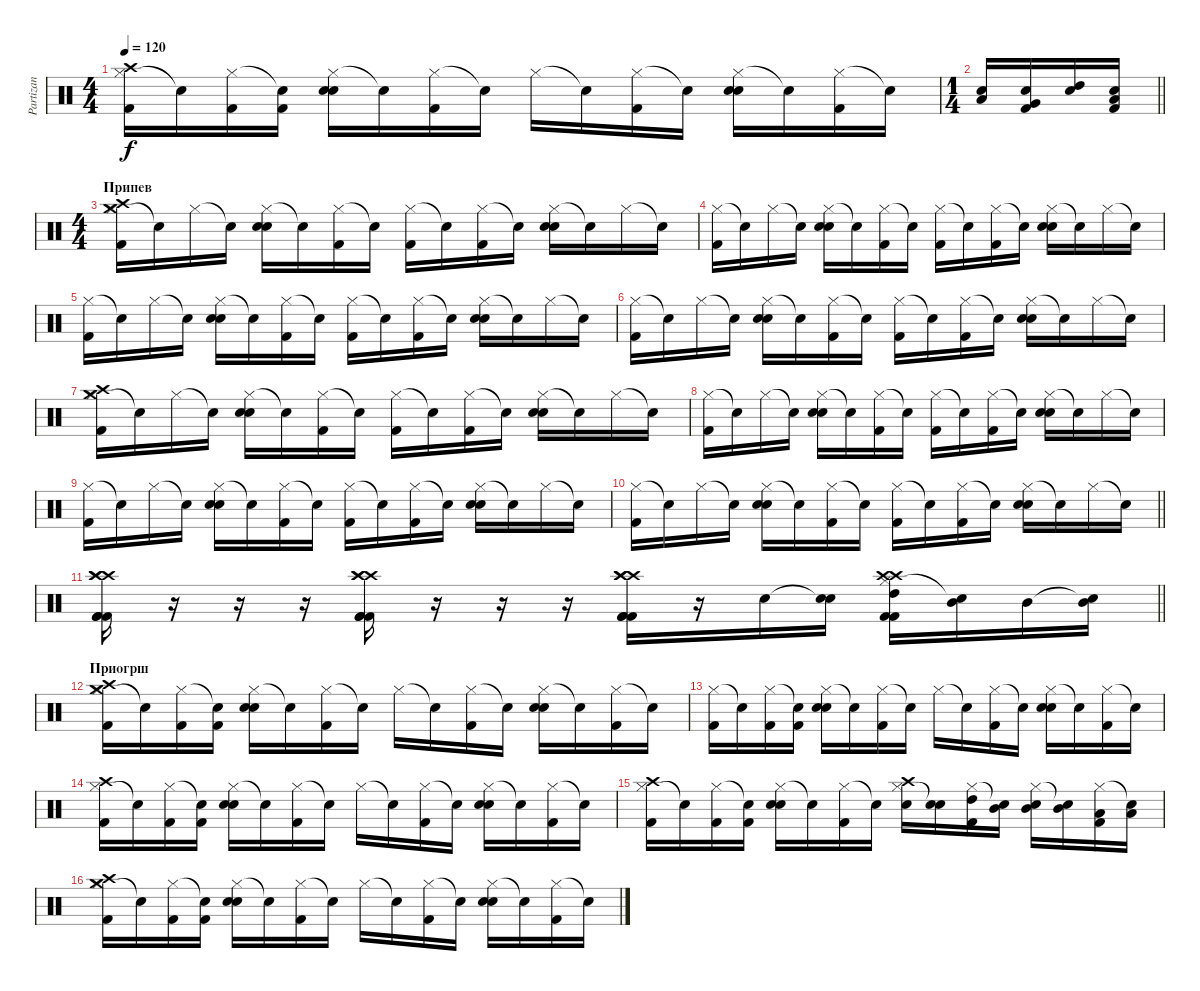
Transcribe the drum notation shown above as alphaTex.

\track ("Partizan" "Partizan") {instrument percussion}
\staff {score}
\articulation defaults
\ts (4 4)
\tempo 120
\clef neutral
\ks c
("Hi-Hat (closed)" "Crash high (hit)" "Kick (hit) 2").16{dy f} "Snare (hit)"{t}.16 ("Hi-Hat (closed)" "Kick (hit) 2").16 ("Snare (hit)"{t} "Kick (hit) 2").16 ("Hi-Hat (closed)" "Electric Snare (hit)" "Snare (hit) 2").16 "Snare (hit)"{t}.16 ("Hi-Hat (closed)" "Kick (hit) 2").16 "Snare (hit)"{t}.16 "Hi-Hat (closed)".16 "Snare (hit)"{t}.16 ("Hi-Hat (closed)" "Kick (hit) 2").16 "Snare (hit)"{t}.16 ("Hi-Hat (closed)" "Electric Snare (hit)" "Snare (hit) 2").16 "Snare (hit)"{t}.16 ("Hi-Hat (closed)" "Kick (hit) 2").16 "Snare (hit)"{t}.16 |
\ts (1 4)
\barLineRight lightlight
("Low Tom (hit)" "Electric Snare (hit)").16 ("Very Low Tom (hit)" "Electric Snare (hit)" "Kick (hit) 2").16 ("High Tom (hit)" "Electric Snare (hit)").16 ("Low Floor Tom (hit)" "Electric Snare (hit)" "Kick (hit) 2").16 |
\ts (4 4)
\section ("" "Припев")
("Hi-Hat (closed)" "Crash high (hit)" "Crash medium (hit)" "Kick (hit) 2").16 "Snare (hit)"{t}.16 "Hi-Hat (closed)".16 "Snare (hit)"{t}.16 ("Hi-Hat (closed)" "Electric Snare (hit)" "Snare (hit) 2").16 "Snare (hit)"{t}.16 ("Hi-Hat (closed)" "Kick (hit) 2").16 "Snare (hit)"{t}.16 ("Hi-Hat (closed)" "Kick (hit) 2").16 "Snare (hit)"{t}.16 ("Hi-Hat (closed)" "Kick (hit) 2").16 "Snare (hit)"{t}.16 ("Hi-Hat (closed)" "Electric Snare (hit)" "Snare (hit) 2").16 "Snare (hit)"{t}.16 "Hi-Hat (closed)".16 "Snare (hit)"{t}.16 |
("Hi-Hat (closed)" "Kick (hit) 2").16 "Snare (hit)"{t}.16 "Hi-Hat (closed)".16 "Snare (hit)"{t}.16 ("Hi-Hat (closed)" "Electric Snare (hit)" "Snare (hit) 2").16 "Snare (hit)"{t}.16 ("Hi-Hat (closed)" "Kick (hit) 2").16 "Snare (hit)"{t}.16 ("Hi-Hat (closed)" "Kick (hit) 2").16 "Snare (hit)"{t}.16 ("Hi-Hat (closed)" "Kick (hit) 2").16 "Snare (hit)"{t}.16 ("Hi-Hat (closed)" "Electric Snare (hit)" "Snare (hit) 2").16 "Snare (hit)"{t}.16 "Hi-Hat (closed)".16 "Snare (hit)"{t}.16 |
("Hi-Hat (closed)" "Kick (hit) 2").16 "Snare (hit)"{t}.16 "Hi-Hat (closed)".16 "Snare (hit)"{t}.16 ("Hi-Hat (closed)" "Electric Snare (hit)" "Snare (hit) 2").16 "Snare (hit)"{t}.16 ("Hi-Hat (closed)" "Kick (hit) 2").16 "Snare (hit)"{t}.16 ("Hi-Hat (closed)" "Kick (hit) 2").16 "Snare (hit)"{t}.16 ("Hi-Hat (closed)" "Kick (hit) 2").16 "Snare (hit)"{t}.16 ("Hi-Hat (closed)" "Electric Snare (hit)" "Snare (hit) 2").16 "Snare (hit)"{t}.16 "Hi-Hat (closed)".16 "Snare (hit)"{t}.16 |
("Hi-Hat (closed)" "Kick (hit) 2").16 "Snare (hit)"{t}.16 "Hi-Hat (closed)".16 "Snare (hit)"{t}.16 ("Hi-Hat (closed)" "Electric Snare (hit)" "Snare (hit) 2").16 "Snare (hit)"{t}.16 ("Hi-Hat (closed)" "Kick (hit) 2").16 "Snare (hit)"{t}.16 ("Hi-Hat (closed)" "Kick (hit) 2").16 "Snare (hit)"{t}.16 ("Hi-Hat (closed)" "Kick (hit) 2").16 "Snare (hit)"{t}.16 ("Hi-Hat (closed)" "Electric Snare (hit)" "Snare (hit) 2").16 "Snare (hit)"{t}.16 "Hi-Hat (closed)".16 "Snare (hit)"{t}.16 |
("Hi-Hat (closed)" "Crash high (hit)" "Crash medium (hit)" "Kick (hit) 2").16 "Snare (hit)"{t}.16 "Hi-Hat (closed)".16 "Snare (hit)"{t}.16 ("Hi-Hat (closed)" "Electric Snare (hit)" "Snare (hit) 2").16 "Snare (hit)"{t}.16 ("Hi-Hat (closed)" "Kick (hit) 2").16 "Snare (hit)"{t}.16 ("Hi-Hat (closed)" "Kick (hit) 2").16 "Snare (hit)"{t}.16 ("Hi-Hat (closed)" "Kick (hit) 2").16 "Snare (hit)"{t}.16 ("Hi-Hat (closed)" "Electric Snare (hit)" "Snare (hit) 2").16 "Snare (hit)"{t}.16 "Hi-Hat (closed)".16 "Snare (hit)"{t}.16 |
("Hi-Hat (closed)" "Kick (hit) 2").16 "Snare (hit)"{t}.16 "Hi-Hat (closed)".16 "Snare (hit)"{t}.16 ("Hi-Hat (closed)" "Electric Snare (hit)" "Snare (hit) 2").16 "Snare (hit)"{t}.16 ("Hi-Hat (closed)" "Kick (hit) 2").16 "Snare (hit)"{t}.16 ("Hi-Hat (closed)" "Kick (hit) 2").16 "Snare (hit)"{t}.16 ("Hi-Hat (closed)" "Kick (hit) 2").16 "Snare (hit)"{t}.16 ("Hi-Hat (closed)" "Electric Snare (hit)" "Snare (hit) 2").16 "Snare (hit)"{t}.16 "Hi-Hat (closed)".16 "Snare (hit)"{t}.16 |
("Hi-Hat (closed)" "Kick (hit) 2").16 "Snare (hit)"{t}.16 "Hi-Hat (closed)".16 "Snare (hit)"{t}.16 ("Hi-Hat (closed)" "Electric Snare (hit)" "Snare (hit) 2").16 "Snare (hit)"{t}.16 ("Hi-Hat (closed)" "Kick (hit) 2").16 "Snare (hit)"{t}.16 ("Hi-Hat (closed)" "Kick (hit) 2").16 "Snare (hit)"{t}.16 ("Hi-Hat (closed)" "Kick (hit) 2").16 "Snare (hit)"{t}.16 ("Hi-Hat (closed)" "Electric Snare (hit)" "Snare (hit) 2").16 "Snare (hit)"{t}.16 "Hi-Hat (closed)".16 "Snare (hit)"{t}.16 |
\barLineRight lightlight
("Hi-Hat (closed)" "Kick (hit) 2").16 "Snare (hit)"{t}.16 "Hi-Hat (closed)".16 "Snare (hit)"{t}.16 ("Hi-Hat (closed)" "Electric Snare (hit)" "Snare (hit) 2").16 "Snare (hit)"{t}.16 ("Hi-Hat (closed)" "Kick (hit) 2").16 "Snare (hit)"{t}.16 ("Hi-Hat (closed)" "Kick (hit) 2").16 "Snare (hit)"{t}.16 ("Hi-Hat (closed)" "Kick (hit) 2").16 "Snare (hit)"{t}.16 ("Hi-Hat (closed)" "Electric Snare (hit)" "Snare (hit) 2").16 "Snare (hit)"{t}.16 "Hi-Hat (closed)".16 "Snare (hit)"{t}.16 |
\barLineRight lightlight
("Crash high (hit)" "Crash high (hit)" "Crash high (hit)" "Kick (hit) 2" "Kick (hit) 2" "Kick (hit) 2").16{volume 16} r.16{volume 0} r.16 r.16 ("Crash high (hit)" "Crash high (hit)" "Crash high (hit)" "Kick (hit) 2" "Kick (hit) 2" "Kick (hit) 2").16{volume 16} r.16{volume 0} r.16 r.16 ("Crash high (hit)" "Crash high (hit)" "Crash high (hit)" "Kick (hit) 2" "Kick (hit) 2" "Kick (hit) 2").16{volume 16} r.16{volume 0} "Electric Snare (hit)".16{volume 10} ("Snare (hit)"{t} "Electric Snare (hit)").16 ("Hi-Hat (closed)" "Crash high (hit)" "Crash high (hit)" "High Tom (hit)" "Kick (hit) 2" "Kick (hit) 2").16 ("Snare (hit)"{t} "Mid Tom (hit)").16 "Mid Tom (hit)".16 ("Snare (hit)"{t} "Mid Tom (hit)").16 |
\section ("" "Приогрш")
("Hi-Hat (closed)" "Crash high (hit)" "Crash medium (hit)" "Kick (hit) 2").16 "Snare (hit)"{t}.16 ("Hi-Hat (closed)" "Kick (hit) 2").16 ("Snare (hit)"{t} "Kick (hit) 2").16 ("Hi-Hat (closed)" "Electric Snare (hit)" "Snare (hit) 2").16 "Snare (hit)"{t}.16 ("Hi-Hat (closed)" "Kick (hit) 2").16 "Snare (hit)"{t}.16 "Hi-Hat (closed)".16 "Snare (hit)"{t}.16 ("Hi-Hat (closed)" "Kick (hit) 2").16 "Snare (hit)"{t}.16 ("Hi-Hat (closed)" "Electric Snare (hit)" "Snare (hit) 2").16 "Snare (hit)"{t}.16 ("Hi-Hat (closed)" "Kick (hit) 2").16 "Snare (hit)"{t}.16 |
("Hi-Hat (closed)" "Kick (hit) 2").16 "Snare (hit)"{t}.16 ("Hi-Hat (closed)" "Kick (hit) 2").16 ("Snare (hit)"{t} "Kick (hit) 2").16 ("Hi-Hat (closed)" "Electric Snare (hit)" "Snare (hit) 2").16 "Snare (hit)"{t}.16 ("Hi-Hat (closed)" "Kick (hit) 2").16 "Snare (hit)"{t}.16 "Hi-Hat (closed)".16 "Snare (hit)"{t}.16 ("Hi-Hat (closed)" "Kick (hit) 2").16 "Snare (hit)"{t}.16 ("Hi-Hat (closed)" "Electric Snare (hit)" "Snare (hit) 2").16 "Snare (hit)"{t}.16 ("Hi-Hat (closed)" "Kick (hit) 2").16 "Snare (hit)"{t}.16 |
("Hi-Hat (closed)" "Crash high (hit)" "Kick (hit) 2").16 "Snare (hit)"{t}.16 ("Hi-Hat (closed)" "Kick (hit) 2").16 ("Snare (hit)"{t} "Kick (hit) 2").16 ("Hi-Hat (closed)" "Electric Snare (hit)" "Snare (hit) 2").16 "Snare (hit)"{t}.16 ("Hi-Hat (closed)" "Kick (hit) 2").16 "Snare (hit)"{t}.16 "Hi-Hat (closed)".16 "Snare (hit)"{t}.16 ("Hi-Hat (closed)" "Kick (hit) 2").16 "Snare (hit)"{t}.16 ("Hi-Hat (closed)" "Electric Snare (hit)" "Snare (hit) 2").16 "Snare (hit)"{t}.16 ("Hi-Hat (closed)" "Kick (hit) 2").16 "Snare (hit)"{t}.16 |
("Hi-Hat (closed)" "Crash high (hit)" "Kick (hit) 2").16 "Snare (hit)"{t}.16 ("Hi-Hat (closed)" "Kick (hit) 2").16 ("Snare (hit)"{t} "Kick (hit) 2").16 ("Hi-Hat (closed)" "Electric Snare (hit)" "Snare (hit) 2").16 "Snare (hit)"{t}.16 ("Hi-Hat (closed)" "Kick (hit) 2").16 "Snare (hit)"{t}.16 ("Hi-Hat (closed)" "Crash high (hit)" "Electric Snare (hit)").16 ("Snare (hit)"{t} "Electric Snare (hit)").16 ("Hi-Hat (closed)" "High Tom (hit)" "Kick (hit) 2").16 ("Snare (hit)"{t} "Mid Tom (hit)").16 ("Hi-Hat (closed)" "Electric Snare (hit)" "Mid Tom (hit)").16 ("Snare (hit)"{t} "Mid Tom (hit)").16 ("Hi-Hat (closed)" "Low Tom (hit)" "Kick (hit) 2").16 ("Snare (hit)"{t} "Low Tom (hit)").16 |
("Hi-Hat (closed)" "Crash medium (hit)" "Crash high (hit)" "Kick (hit) 2").16 "Snare (hit)"{t}.16 ("Hi-Hat (closed)" "Kick (hit) 2").16 ("Snare (hit)"{t} "Kick (hit) 2").16 ("Hi-Hat (closed)" "Electric Snare (hit)" "Snare (hit) 2").16 "Snare (hit)"{t}.16 ("Hi-Hat (closed)" "Kick (hit) 2").16 "Snare (hit)"{t}.16 "Hi-Hat (closed)".16 "Snare (hit)"{t}.16 ("Hi-Hat (closed)" "Kick (hit) 2").16 "Snare (hit)"{t}.16 ("Hi-Hat (closed)" "Electric Snare (hit)" "Snare (hit) 2").16 "Snare (hit)"{t}.16 ("Hi-Hat (closed)" "Kick (hit) 2").16 "Snare (hit)"{t}.16
